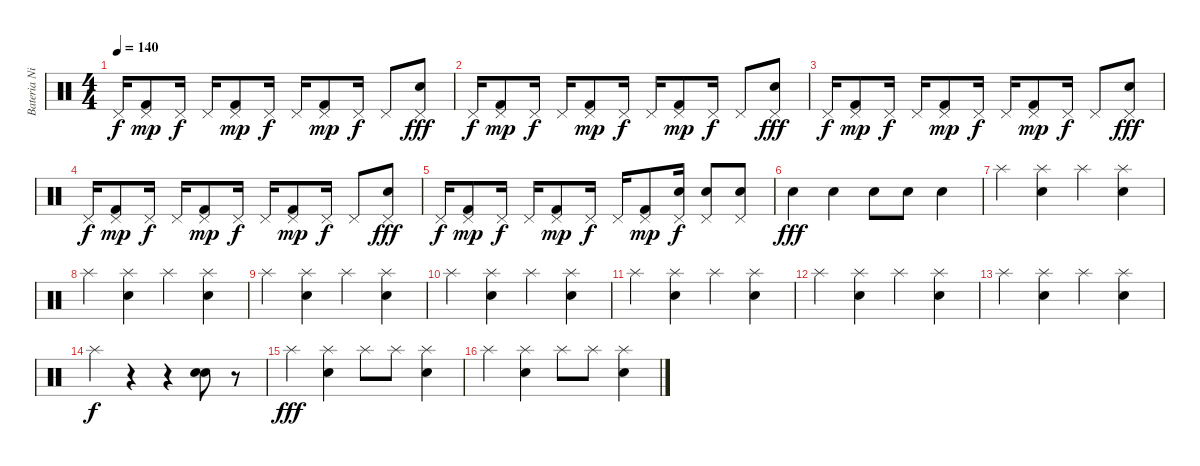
\track ("Bateria Nicolas Cabrera" "Bateria Ni") {instrument percussion}
\staff {score}
\articulation defaults
\ts (4 4)
\tempo 140
\clef neutral
\ks c "Pedal Hi-Hat (hit)".16{dy f}
("Pedal Hi-Hat (hit)" "Kick (hit) 2").8{dy mp} "Pedal Hi-Hat (hit)".16{dy f} "Pedal Hi-Hat (hit)".16 ("Pedal Hi-Hat (hit)" "Kick (hit) 2").8{dy mp} "Pedal Hi-Hat (hit)".16{dy f} "Pedal Hi-Hat (hit)".16 ("Pedal Hi-Hat (hit)" "Kick (hit) 2").8{dy mp} "Pedal Hi-Hat (hit)".16{dy f} "Pedal Hi-Hat (hit)".8 ("Pedal Hi-Hat (hit)" "Electric Snare (hit)").8{dy fff} |
"Pedal Hi-Hat (hit)".16{dy f} ("Pedal Hi-Hat (hit)" "Kick (hit) 2").8{dy mp} "Pedal Hi-Hat (hit)".16{dy f} "Pedal Hi-Hat (hit)".16 ("Pedal Hi-Hat (hit)" "Kick (hit) 2").8{dy mp} "Pedal Hi-Hat (hit)".16{dy f} "Pedal Hi-Hat (hit)".16 ("Pedal Hi-Hat (hit)" "Kick (hit) 2").8{dy mp} "Pedal Hi-Hat (hit)".16{dy f} "Pedal Hi-Hat (hit)".8 ("Pedal Hi-Hat (hit)" "Electric Snare (hit)").8{dy fff} |
"Pedal Hi-Hat (hit)".16{dy f} ("Pedal Hi-Hat (hit)" "Kick (hit) 2").8{dy mp} "Pedal Hi-Hat (hit)".16{dy f} "Pedal Hi-Hat (hit)".16 ("Pedal Hi-Hat (hit)" "Kick (hit) 2").8{dy mp} "Pedal Hi-Hat (hit)".16{dy f} "Pedal Hi-Hat (hit)".16 ("Pedal Hi-Hat (hit)" "Kick (hit) 2").8{dy mp} "Pedal Hi-Hat (hit)".16{dy f} "Pedal Hi-Hat (hit)".8 ("Pedal Hi-Hat (hit)" "Electric Snare (hit)").8{dy fff} |
"Pedal Hi-Hat (hit)".16{dy f} ("Pedal Hi-Hat (hit)" "Kick (hit) 2").8{dy mp} "Pedal Hi-Hat (hit)".16{dy f} "Pedal Hi-Hat (hit)".16 ("Pedal Hi-Hat (hit)" "Kick (hit) 2").8{dy mp} "Pedal Hi-Hat (hit)".16{dy f} "Pedal Hi-Hat (hit)".16 ("Pedal Hi-Hat (hit)" "Kick (hit) 2").8{dy mp} "Pedal Hi-Hat (hit)".16{dy f} "Pedal Hi-Hat (hit)".8 ("Pedal Hi-Hat (hit)" "Electric Snare (hit)").8{dy fff} |
"Pedal Hi-Hat (hit)".16{dy f} ("Pedal Hi-Hat (hit)" "Kick (hit) 2").8{dy mp} "Pedal Hi-Hat (hit)".16{dy f} "Pedal Hi-Hat (hit)".16 ("Pedal Hi-Hat (hit)" "Kick (hit) 2").8{dy mp} "Pedal Hi-Hat (hit)".16{dy f} "Pedal Hi-Hat (hit)".16 ("Pedal Hi-Hat (hit)" "Kick (hit) 2").8{dy mp} ("Pedal Hi-Hat (hit)" "Snare (hit) 2").16{dy f} ("Pedal Hi-Hat (hit)" "Snare (hit) 2").8 ("Pedal Hi-Hat (hit)" "Snare (hit) 2").8 |
"Electric Snare (hit)".4{dy fff} "Electric Snare (hit)".4 "Electric Snare (hit)".8 "Electric Snare (hit)".8 "Electric Snare (hit)".4 |
"Splash (hit)".4 ("Splash (hit)" "Electric Snare (hit)").4 "Splash (hit)".4 ("Splash (hit)" "Electric Snare (hit)").4 |
"Splash (hit)".4 ("Splash (hit)" "Electric Snare (hit)").4 "Splash (hit)".4 ("Splash (hit)" "Electric Snare (hit)").4 |
"Splash (hit)".4 ("Splash (hit)" "Electric Snare (hit)").4 "Splash (hit)".4 ("Splash (hit)" "Electric Snare (hit)").4 |
"Splash (hit)".4 ("Splash (hit)" "Electric Snare (hit)").4 "Splash (hit)".4 ("Splash (hit)" "Electric Snare (hit)").4 |
"Splash (hit)".4 ("Splash (hit)" "Electric Snare (hit)").4 "Splash (hit)".4 ("Splash (hit)" "Electric Snare (hit)").4 |
"Splash (hit)".4 ("Splash (hit)" "Electric Snare (hit)").4 "Splash (hit)".4 ("Splash (hit)" "Electric Snare (hit)").4 |
"Splash (hit)".4 ("Splash (hit)" "Electric Snare (hit)").4 "Splash (hit)".4 ("Splash (hit)" "Electric Snare (hit)").4 |
"Splash (hit)".4{dy f} r.4 r.4 ("Electric Snare (hit)" "Hand Clap (hit)").8 r.8 |
"Splash (hit)".4{dy fff} ("Splash (hit)" "Snare (hit) 2").4 "Splash (hit)".8 "Splash (hit)".8 ("Splash (hit)" "Snare (hit) 2").4 |
"Splash (hit)".4 ("Splash (hit)" "Snare (hit) 2").4 "Splash (hit)".8 "Splash (hit)".8 ("Splash (hit)" "Snare (hit) 2").4
